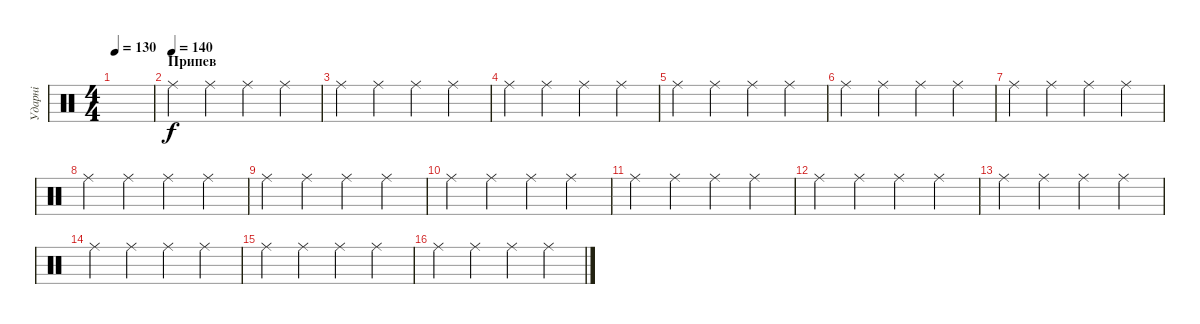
\track ("Ударні" "Ударні") {instrument percussion}
\staff {score}
\articulation defaults
\ts (4 4)
\tempo 130
\clef neutral
\ks c
|
\section ("" "Припев")
\tempo (140)
"Ride (middle)".4 "Ride (middle)".4 "Ride (middle)".4 "Ride (middle)".4 |
"Ride (middle)".4 "Ride (middle)".4 "Ride (middle)".4 "Ride (middle)".4 |
"Ride (middle)".4 "Ride (middle)".4 "Ride (middle)".4 "Ride (middle)".4 |
"Ride (middle)".4 "Ride (middle)".4 "Ride (middle)".4 "Ride (middle)".4 |
"Ride (middle)".4 "Ride (middle)".4 "Ride (middle)".4 "Ride (middle)".4 |
"Ride (middle)".4 "Ride (middle)".4 "Ride (middle)".4 "Ride (middle)".4 |
"Ride (middle)".4 "Ride (middle)".4 "Ride (middle)".4 "Ride (middle)".4 |
"Ride (middle)".4 "Ride (middle)".4 "Ride (middle)".4 "Ride (middle)".4 |
"Ride (middle)".4 "Ride (middle)".4 "Ride (middle)".4 "Ride (middle)".4 |
"Ride (middle)".4 "Ride (middle)".4 "Ride (middle)".4 "Ride (middle)".4 |
"Ride (middle)".4 "Ride (middle)".4 "Ride (middle)".4 "Ride (middle)".4 |
"Ride (middle)".4 "Ride (middle)".4 "Ride (middle)".4 "Ride (middle)".4 |
"Ride (middle)".4 "Ride (middle)".4 "Ride (middle)".4 "Ride (middle)".4 |
"Ride (middle)".4 "Ride (middle)".4 "Ride (middle)".4 "Ride (middle)".4 |
"Ride (middle)".4 "Ride (middle)".4 "Ride (middle)".4 "Ride (middle)".4
